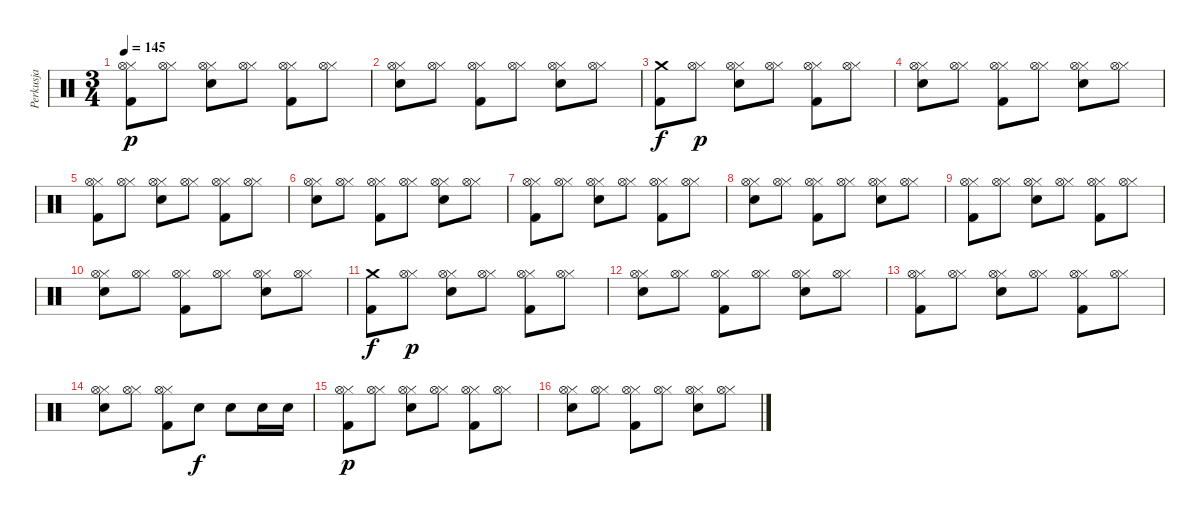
\track ("Perkusja" "Perkusja") {instrument percussion}
\staff {score}
\articulation defaults
\ts (3 4)
\tempo 145
\clef neutral
\ks c
("Kick (hit) 2" "Hi-Hat (closed)" "Hi-Hat (open)").8{dy p} ("Hi-Hat (closed)" "Hi-Hat (open)").8 ("Electric Snare (hit)" "Hi-Hat (closed)" "Hi-Hat (open)").8 ("Hi-Hat (closed)" "Hi-Hat (open)").8 ("Kick (hit) 2" "Hi-Hat (closed)" "Hi-Hat (open)").8 ("Hi-Hat (closed)" "Hi-Hat (open)").8 |
("Electric Snare (hit)" "Hi-Hat (closed)" "Hi-Hat (open)").8 ("Hi-Hat (closed)" "Hi-Hat (open)").8 ("Kick (hit) 2" "Hi-Hat (closed)" "Hi-Hat (open)").8 ("Hi-Hat (closed)" "Hi-Hat (open)").8 ("Electric Snare (hit)" "Hi-Hat (closed)" "Hi-Hat (open)").8 ("Hi-Hat (closed)" "Hi-Hat (open)").8 |
("Kick (hit) 2" "Crash medium (hit)").8{dy f} ("Hi-Hat (closed)" "Hi-Hat (open)").8{dy p} ("Electric Snare (hit)" "Hi-Hat (closed)" "Hi-Hat (open)").8 ("Hi-Hat (closed)" "Hi-Hat (open)").8 ("Kick (hit) 2" "Hi-Hat (closed)" "Hi-Hat (open)").8 ("Hi-Hat (closed)" "Hi-Hat (open)").8 |
("Electric Snare (hit)" "Hi-Hat (closed)" "Hi-Hat (open)").8 ("Hi-Hat (closed)" "Hi-Hat (open)").8 ("Kick (hit) 2" "Hi-Hat (closed)" "Hi-Hat (open)").8 ("Hi-Hat (closed)" "Hi-Hat (open)").8 ("Electric Snare (hit)" "Hi-Hat (closed)" "Hi-Hat (open)").8 ("Hi-Hat (closed)" "Hi-Hat (open)").8 |
("Kick (hit) 2" "Hi-Hat (closed)" "Hi-Hat (open)").8 ("Hi-Hat (closed)" "Hi-Hat (open)").8 ("Electric Snare (hit)" "Hi-Hat (closed)" "Hi-Hat (open)").8 ("Hi-Hat (closed)" "Hi-Hat (open)").8 ("Kick (hit) 2" "Hi-Hat (closed)" "Hi-Hat (open)").8 ("Hi-Hat (closed)" "Hi-Hat (open)").8 |
("Electric Snare (hit)" "Hi-Hat (closed)" "Hi-Hat (open)").8 ("Hi-Hat (closed)" "Hi-Hat (open)").8 ("Kick (hit) 2" "Hi-Hat (closed)" "Hi-Hat (open)").8 ("Hi-Hat (closed)" "Hi-Hat (open)").8 ("Electric Snare (hit)" "Hi-Hat (closed)" "Hi-Hat (open)").8 ("Hi-Hat (closed)" "Hi-Hat (open)").8 |
("Kick (hit) 2" "Hi-Hat (closed)" "Hi-Hat (open)").8 ("Hi-Hat (closed)" "Hi-Hat (open)").8 ("Electric Snare (hit)" "Hi-Hat (closed)" "Hi-Hat (open)").8 ("Hi-Hat (closed)" "Hi-Hat (open)").8 ("Kick (hit) 2" "Hi-Hat (closed)" "Hi-Hat (open)").8 ("Hi-Hat (closed)" "Hi-Hat (open)").8 |
("Electric Snare (hit)" "Hi-Hat (closed)" "Hi-Hat (open)").8 ("Hi-Hat (closed)" "Hi-Hat (open)").8 ("Kick (hit) 2" "Hi-Hat (closed)" "Hi-Hat (open)").8 ("Hi-Hat (closed)" "Hi-Hat (open)").8 ("Electric Snare (hit)" "Hi-Hat (closed)" "Hi-Hat (open)").8 ("Hi-Hat (closed)" "Hi-Hat (open)").8 |
("Kick (hit) 2" "Hi-Hat (closed)" "Hi-Hat (open)").8 ("Hi-Hat (closed)" "Hi-Hat (open)").8 ("Electric Snare (hit)" "Hi-Hat (closed)" "Hi-Hat (open)").8 ("Hi-Hat (closed)" "Hi-Hat (open)").8 ("Kick (hit) 2" "Hi-Hat (closed)" "Hi-Hat (open)").8 ("Hi-Hat (closed)" "Hi-Hat (open)").8 |
("Electric Snare (hit)" "Hi-Hat (closed)" "Hi-Hat (open)").8 ("Hi-Hat (closed)" "Hi-Hat (open)").8 ("Kick (hit) 2" "Hi-Hat (closed)" "Hi-Hat (open)").8 ("Hi-Hat (closed)" "Hi-Hat (open)").8 ("Electric Snare (hit)" "Hi-Hat (closed)" "Hi-Hat (open)").8 ("Hi-Hat (closed)" "Hi-Hat (open)").8 |
("Kick (hit) 2" "Crash medium (hit)").8{dy f} ("Hi-Hat (closed)" "Hi-Hat (open)").8{dy p} ("Electric Snare (hit)" "Hi-Hat (closed)" "Hi-Hat (open)").8 ("Hi-Hat (closed)" "Hi-Hat (open)").8 ("Kick (hit) 2" "Hi-Hat (closed)" "Hi-Hat (open)").8 ("Hi-Hat (closed)" "Hi-Hat (open)").8 |
("Electric Snare (hit)" "Hi-Hat (closed)" "Hi-Hat (open)").8 ("Hi-Hat (closed)" "Hi-Hat (open)").8 ("Kick (hit) 2" "Hi-Hat (closed)" "Hi-Hat (open)").8 ("Hi-Hat (closed)" "Hi-Hat (open)").8 ("Electric Snare (hit)" "Hi-Hat (closed)" "Hi-Hat (open)").8 ("Hi-Hat (closed)" "Hi-Hat (open)").8 |
("Kick (hit) 2" "Hi-Hat (closed)" "Hi-Hat (open)").8 ("Hi-Hat (closed)" "Hi-Hat (open)").8 ("Electric Snare (hit)" "Hi-Hat (closed)" "Hi-Hat (open)").8 ("Hi-Hat (closed)" "Hi-Hat (open)").8 ("Kick (hit) 2" "Hi-Hat (closed)" "Hi-Hat (open)").8 ("Hi-Hat (closed)" "Hi-Hat (open)").8 |
("Electric Snare (hit)" "Hi-Hat (closed)" "Hi-Hat (open)").8 ("Hi-Hat (closed)" "Hi-Hat (open)").8 ("Kick (hit) 2" "Hi-Hat (closed)" "Hi-Hat (open)").8 "Electric Snare (hit)".8{dy f} "Electric Snare (hit)".8 "Electric Snare (hit)".16 "Electric Snare (hit)".16 |
("Kick (hit) 2" "Hi-Hat (closed)" "Hi-Hat (open)").8{dy p} ("Hi-Hat (closed)" "Hi-Hat (open)").8 ("Electric Snare (hit)" "Hi-Hat (closed)" "Hi-Hat (open)").8 ("Hi-Hat (closed)" "Hi-Hat (open)").8 ("Kick (hit) 2" "Hi-Hat (closed)" "Hi-Hat (open)").8 ("Hi-Hat (closed)" "Hi-Hat (open)").8 |
("Electric Snare (hit)" "Hi-Hat (closed)" "Hi-Hat (open)").8 ("Hi-Hat (closed)" "Hi-Hat (open)").8 ("Kick (hit) 2" "Hi-Hat (closed)" "Hi-Hat (open)").8 ("Hi-Hat (closed)" "Hi-Hat (open)").8 ("Electric Snare (hit)" "Hi-Hat (closed)" "Hi-Hat (open)").8 ("Hi-Hat (closed)" "Hi-Hat (open)").8
